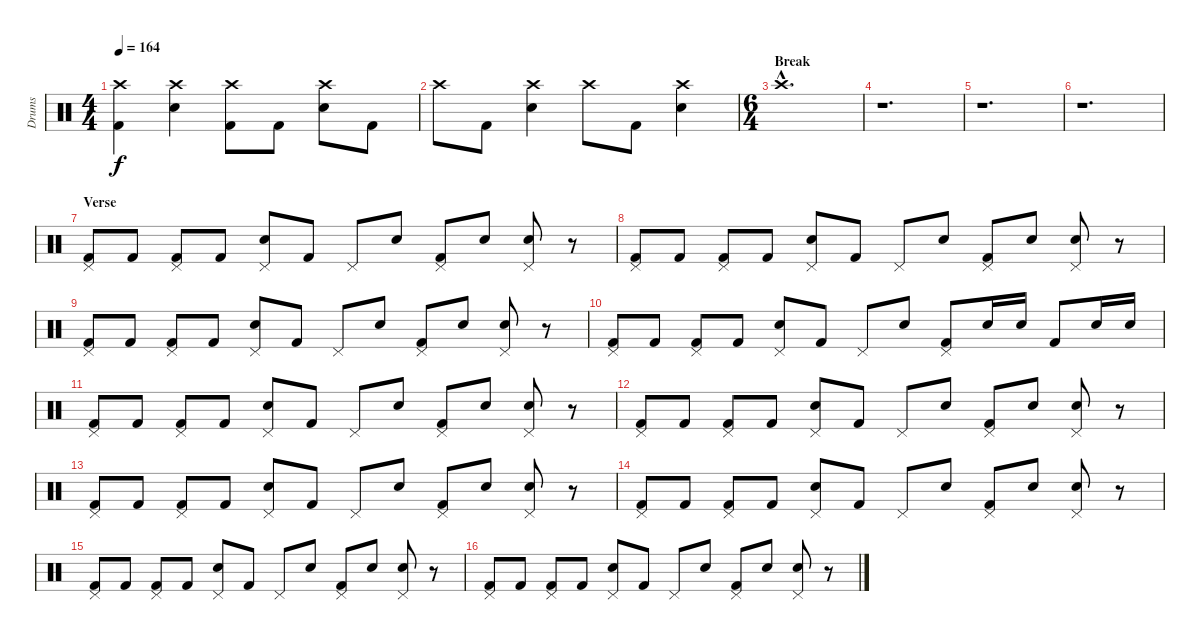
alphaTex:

\track ("Drums" "Drums") {instrument percussion}
\staff {score}
\articulation defaults
\ts (4 4)
\tempo 164
\clef neutral
\ks c
("Crash high (hit)" "Kick (hit) 2").4{dy f} ("Crash high (hit)" "Electric Snare (hit)").4 ("Crash high (hit)" "Kick (hit) 2").8 "Kick (hit) 2".8 ("Crash high (hit)" "Electric Snare (hit)").8 "Kick (hit) 2".8 |
"Crash high (hit)".8 "Kick (hit) 2".8 ("Crash high (hit)" "Electric Snare (hit)").4 "Crash high (hit)".8 "Kick (hit) 2".8 ("Crash high (hit)" "Electric Snare (hit)").4 |
\ts (6 4)
\section ("" "Break")
"Crash high (hit)"{hac}.1{d} |
r.1{d} |
r.1{d} |
r.1{d} |
\section ("" "Verse")
("Pedal Hi-Hat (hit)" "Kick (hit) 2").8 "Kick (hit) 2".8 ("Pedal Hi-Hat (hit)" "Kick (hit) 2").8 "Kick (hit) 2".8 ("Pedal Hi-Hat (hit)" "Electric Snare (hit)").8 "Kick (hit) 2".8 "Pedal Hi-Hat (hit)".8 "Electric Snare (hit)".8 ("Pedal Hi-Hat (hit)" "Kick (hit) 2").8 "Electric Snare (hit)".8 ("Pedal Hi-Hat (hit)" "Electric Snare (hit)").8 r.8 |
("Pedal Hi-Hat (hit)" "Kick (hit) 2").8 "Kick (hit) 2".8 ("Pedal Hi-Hat (hit)" "Kick (hit) 2").8 "Kick (hit) 2".8 ("Pedal Hi-Hat (hit)" "Electric Snare (hit)").8 "Kick (hit) 2".8 "Pedal Hi-Hat (hit)".8 "Electric Snare (hit)".8 ("Pedal Hi-Hat (hit)" "Kick (hit) 2").8 "Electric Snare (hit)".8 ("Pedal Hi-Hat (hit)" "Electric Snare (hit)").8 r.8 |
("Pedal Hi-Hat (hit)" "Kick (hit) 2").8 "Kick (hit) 2".8 ("Pedal Hi-Hat (hit)" "Kick (hit) 2").8 "Kick (hit) 2".8 ("Pedal Hi-Hat (hit)" "Electric Snare (hit)").8 "Kick (hit) 2".8 "Pedal Hi-Hat (hit)".8 "Electric Snare (hit)".8 ("Pedal Hi-Hat (hit)" "Kick (hit) 2").8 "Electric Snare (hit)".8 ("Pedal Hi-Hat (hit)" "Electric Snare (hit)").8 r.8 |
("Pedal Hi-Hat (hit)" "Kick (hit) 2").8 "Kick (hit) 2".8 ("Pedal Hi-Hat (hit)" "Kick (hit) 2").8 "Kick (hit) 2".8 ("Pedal Hi-Hat (hit)" "Electric Snare (hit)").8 "Kick (hit) 2".8 "Pedal Hi-Hat (hit)".8 "Electric Snare (hit)".8 ("Pedal Hi-Hat (hit)" "Kick (hit) 2").8 "Electric Snare (hit)".16 "Electric Snare (hit)".16 "Kick (hit) 2".8 "Electric Snare (hit)".16 "Electric Snare (hit)".16 |
("Pedal Hi-Hat (hit)" "Kick (hit) 2").8 "Kick (hit) 2".8 ("Pedal Hi-Hat (hit)" "Kick (hit) 2").8 "Kick (hit) 2".8 ("Pedal Hi-Hat (hit)" "Electric Snare (hit)").8 "Kick (hit) 2".8 "Pedal Hi-Hat (hit)".8 "Electric Snare (hit)".8 ("Pedal Hi-Hat (hit)" "Kick (hit) 2").8 "Electric Snare (hit)".8 ("Pedal Hi-Hat (hit)" "Electric Snare (hit)").8 r.8 |
("Pedal Hi-Hat (hit)" "Kick (hit) 2").8 "Kick (hit) 2".8 ("Pedal Hi-Hat (hit)" "Kick (hit) 2").8 "Kick (hit) 2".8 ("Pedal Hi-Hat (hit)" "Electric Snare (hit)").8 "Kick (hit) 2".8 "Pedal Hi-Hat (hit)".8 "Electric Snare (hit)".8 ("Pedal Hi-Hat (hit)" "Kick (hit) 2").8 "Electric Snare (hit)".8 ("Pedal Hi-Hat (hit)" "Electric Snare (hit)").8 r.8 |
("Pedal Hi-Hat (hit)" "Kick (hit) 2").8 "Kick (hit) 2".8 ("Pedal Hi-Hat (hit)" "Kick (hit) 2").8 "Kick (hit) 2".8 ("Pedal Hi-Hat (hit)" "Electric Snare (hit)").8 "Kick (hit) 2".8 "Pedal Hi-Hat (hit)".8 "Electric Snare (hit)".8 ("Pedal Hi-Hat (hit)" "Kick (hit) 2").8 "Electric Snare (hit)".8 ("Pedal Hi-Hat (hit)" "Electric Snare (hit)").8 r.8 |
("Pedal Hi-Hat (hit)" "Kick (hit) 2").8 "Kick (hit) 2".8 ("Pedal Hi-Hat (hit)" "Kick (hit) 2").8 "Kick (hit) 2".8 ("Pedal Hi-Hat (hit)" "Electric Snare (hit)").8 "Kick (hit) 2".8 "Pedal Hi-Hat (hit)".8 "Electric Snare (hit)".8 ("Pedal Hi-Hat (hit)" "Kick (hit) 2").8 "Electric Snare (hit)".8 ("Pedal Hi-Hat (hit)" "Electric Snare (hit)").8 r.8 |
("Pedal Hi-Hat (hit)" "Kick (hit) 2").8 "Kick (hit) 2".8 ("Pedal Hi-Hat (hit)" "Kick (hit) 2").8 "Kick (hit) 2".8 ("Pedal Hi-Hat (hit)" "Electric Snare (hit)").8 "Kick (hit) 2".8 "Pedal Hi-Hat (hit)".8 "Electric Snare (hit)".8 ("Pedal Hi-Hat (hit)" "Kick (hit) 2").8 "Electric Snare (hit)".8 ("Pedal Hi-Hat (hit)" "Electric Snare (hit)").8 r.8 |
("Pedal Hi-Hat (hit)" "Kick (hit) 2").8 "Kick (hit) 2".8 ("Pedal Hi-Hat (hit)" "Kick (hit) 2").8 "Kick (hit) 2".8 ("Pedal Hi-Hat (hit)" "Electric Snare (hit)").8 "Kick (hit) 2".8 "Pedal Hi-Hat (hit)".8 "Electric Snare (hit)".8 ("Pedal Hi-Hat (hit)" "Kick (hit) 2").8 "Electric Snare (hit)".8 ("Pedal Hi-Hat (hit)" "Electric Snare (hit)").8 r.8
